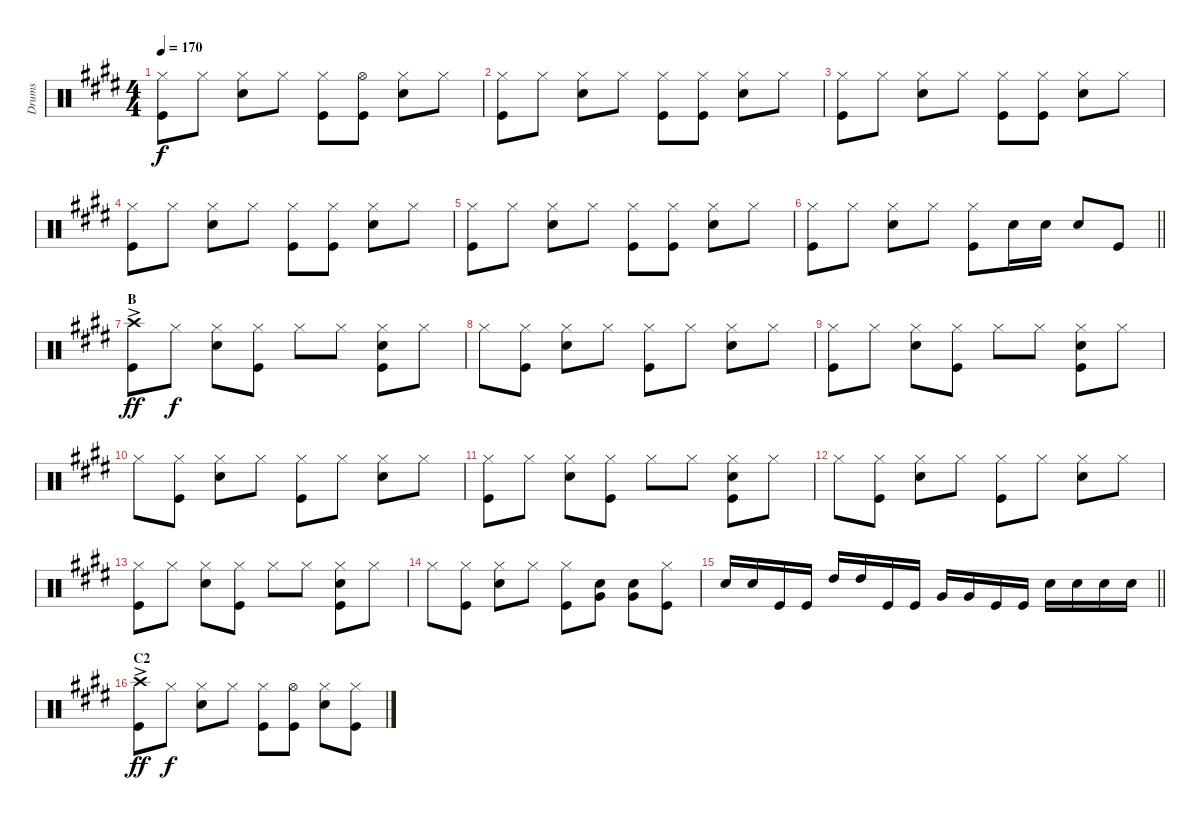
\track ("Drums" "Drums") {instrument percussion}
\staff {score}
\articulation defaults
\ts (4 4)
\tempo 170
\clef neutral
\ks e
("Hi-Hat (closed)" "Kick (hit)").8{dy f} "Hi-Hat (closed)".8 ("Hi-Hat (closed)" "Snare (hit) 2").8 "Hi-Hat (closed)".8 ("Hi-Hat (closed)" "Kick (hit)").8 ("Kick (hit)" "Hi-Hat (open)").8 ("Hi-Hat (closed)" "Snare (hit) 2").8 "Hi-Hat (closed)".8 |
("Hi-Hat (closed)" "Kick (hit)").8 "Hi-Hat (closed)".8 ("Hi-Hat (closed)" "Snare (hit) 2").8 "Hi-Hat (closed)".8 ("Hi-Hat (closed)" "Kick (hit)").8 ("Kick (hit)" "Hi-Hat (closed)").8 ("Hi-Hat (closed)" "Snare (hit) 2").8 "Hi-Hat (closed)".8 |
("Hi-Hat (closed)" "Kick (hit)").8 "Hi-Hat (closed)".8 ("Hi-Hat (closed)" "Snare (hit) 2").8 "Hi-Hat (closed)".8 ("Hi-Hat (closed)" "Kick (hit)").8 ("Kick (hit)" "Hi-Hat (closed)").8 ("Hi-Hat (closed)" "Snare (hit) 2").8 "Hi-Hat (closed)".8 |
("Hi-Hat (closed)" "Kick (hit)").8 "Hi-Hat (closed)".8 ("Hi-Hat (closed)" "Snare (hit) 2").8 "Hi-Hat (closed)".8 ("Hi-Hat (closed)" "Kick (hit)").8 ("Kick (hit)" "Hi-Hat (closed)").8 ("Hi-Hat (closed)" "Snare (hit) 2").8 "Hi-Hat (closed)".8 |
("Hi-Hat (closed)" "Kick (hit)").8 "Hi-Hat (closed)".8 ("Hi-Hat (closed)" "Snare (hit) 2").8 "Hi-Hat (closed)".8 ("Hi-Hat (closed)" "Kick (hit)").8 ("Kick (hit)" "Hi-Hat (closed)").8 ("Hi-Hat (closed)" "Snare (hit) 2").8 "Hi-Hat (closed)".8 |
\barLineRight lightlight
("Hi-Hat (closed)" "Kick (hit)").8 "Hi-Hat (closed)".8 ("Hi-Hat (closed)" "Snare (hit) 2").8 "Hi-Hat (closed)".8 ("Hi-Hat (closed)" "Kick (hit)").8 "Snare (hit) 2".16 "Snare (hit) 2".16 "Snare (hit) 2".8 "Kick (hit)".8 |
\section ("" "B")
("Crash high (hit)"{ac} "Kick (hit)").8{dy ff} "Hi-Hat (closed)".8{dy f} ("Hi-Hat (closed)" "Snare (hit) 2").8 ("Hi-Hat (closed)" "Kick (hit)").8 "Hi-Hat (closed)".8 "Hi-Hat (closed)".8 ("Hi-Hat (closed)" "Kick (hit)" "Snare (hit) 2").8 "Hi-Hat (closed)".8 |
"Hi-Hat (closed)".8 ("Kick (hit)" "Hi-Hat (closed)").8 ("Hi-Hat (closed)" "Snare (hit) 2").8 "Hi-Hat (closed)".8 ("Hi-Hat (closed)" "Kick (hit)").8 "Hi-Hat (closed)".8 ("Hi-Hat (closed)" "Snare (hit) 2").8 "Hi-Hat (closed)".8 |
("Hi-Hat (closed)" "Kick (hit)").8 "Hi-Hat (closed)".8 ("Hi-Hat (closed)" "Snare (hit) 2").8 ("Hi-Hat (closed)" "Kick (hit)").8 "Hi-Hat (closed)".8 "Hi-Hat (closed)".8 ("Hi-Hat (closed)" "Kick (hit)" "Snare (hit) 2").8 "Hi-Hat (closed)".8 |
"Hi-Hat (closed)".8 ("Kick (hit)" "Hi-Hat (closed)").8 ("Hi-Hat (closed)" "Snare (hit) 2").8 "Hi-Hat (closed)".8 ("Hi-Hat (closed)" "Kick (hit)").8 "Hi-Hat (closed)".8 ("Hi-Hat (closed)" "Snare (hit) 2").8 "Hi-Hat (closed)".8 |
("Hi-Hat (closed)" "Kick (hit)").8 "Hi-Hat (closed)".8 ("Hi-Hat (closed)" "Snare (hit) 2").8 ("Hi-Hat (closed)" "Kick (hit)").8 "Hi-Hat (closed)".8 "Hi-Hat (closed)".8 ("Hi-Hat (closed)" "Kick (hit)" "Snare (hit) 2").8 "Hi-Hat (closed)".8 |
"Hi-Hat (closed)".8 ("Kick (hit)" "Hi-Hat (closed)").8 ("Hi-Hat (closed)" "Snare (hit) 2").8 "Hi-Hat (closed)".8 ("Hi-Hat (closed)" "Kick (hit)").8 "Hi-Hat (closed)".8 ("Hi-Hat (closed)" "Snare (hit) 2").8 "Hi-Hat (closed)".8 |
("Hi-Hat (closed)" "Kick (hit)").8 "Hi-Hat (closed)".8 ("Hi-Hat (closed)" "Snare (hit) 2").8 ("Hi-Hat (closed)" "Kick (hit)").8 "Hi-Hat (closed)".8 "Hi-Hat (closed)".8 ("Hi-Hat (closed)" "Kick (hit)" "Snare (hit) 2").8 "Hi-Hat (closed)".8 |
"Hi-Hat (closed)".8 ("Kick (hit)" "Hi-Hat (closed)").8 ("Hi-Hat (closed)" "Snare (hit) 2").8 "Hi-Hat (closed)".8 ("Hi-Hat (closed)" "Kick (hit)").8 ("Snare (hit) 2" "Very Low Tom (hit)").8 ("Very Low Tom (hit)" "Snare (hit) 2").8 ("Hi-Hat (closed)" "Kick (hit)").8 |
\barLineRight lightlight "Snare (hit) 2".16 "Snare (hit) 2".16 "Kick (hit)".16 "Kick (hit)".16 "High Tom (hit)".16 "High Tom (hit)".16 "Kick (hit)".16 "Kick (hit)".16 "Very Low Tom (hit)".16 "Very Low Tom (hit)".16 "Kick (hit)".16 "Kick (hit)".16 "Snare (hit) 2".16 "Snare (hit) 2".16 "Snare (hit) 2".16 "Snare (hit) 2".16
|
\section ("" "C2")
("Crash high (hit)"{ac} "Kick (hit)").8{dy ff} "Hi-Hat (closed)".8{dy f} ("Hi-Hat (closed)" "Snare (hit) 2").8 "Hi-Hat (closed)".8 ("Hi-Hat (closed)" "Kick (hit)").8 ("Kick (hit)" "Hi-Hat (open)").8 ("Hi-Hat (closed)" "Snare (hit) 2").8 ("Hi-Hat (closed)" "Kick (hit)").8
